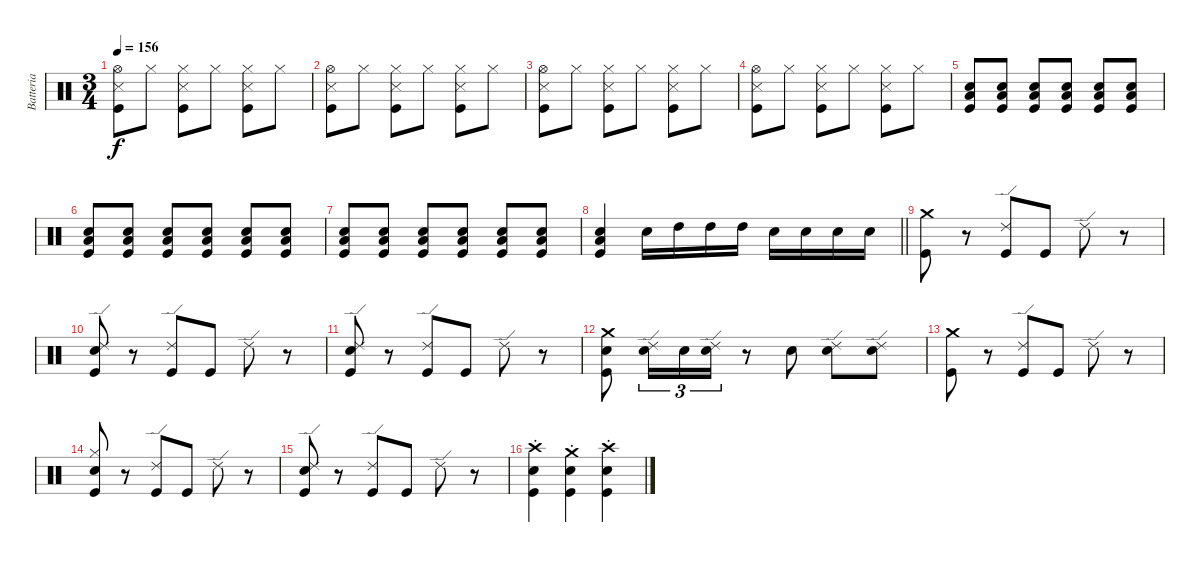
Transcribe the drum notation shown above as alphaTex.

\track ("Batteria" "Batteria") {instrument percussion}
\staff {score}
\articulation defaults
\ts (3 4)
\tempo 156
\clef neutral
\ks c
("Hi-Hat (open)" "Kick (hit)" "Snare (side stick) 3").8{dy f} "Hi-Hat (closed)".8 ("Hi-Hat (closed)" "Kick (hit)" "Snare (side stick) 3").8 "Hi-Hat (closed)".8 ("Hi-Hat (closed)" "Kick (hit)" "Snare (side stick) 3").8 "Hi-Hat (closed)".8 |
("Hi-Hat (open)" "Kick (hit)" "Snare (side stick) 3").8 "Hi-Hat (closed)".8 ("Hi-Hat (closed)" "Kick (hit)" "Snare (side stick) 3").8 "Hi-Hat (closed)".8 ("Hi-Hat (closed)" "Kick (hit)" "Snare (side stick) 3").8 "Hi-Hat (closed)".8 |
("Hi-Hat (open)" "Kick (hit)" "Snare (side stick) 3").8 "Hi-Hat (closed)".8 ("Hi-Hat (closed)" "Kick (hit)" "Snare (side stick) 3").8 "Hi-Hat (closed)".8 ("Hi-Hat (closed)" "Kick (hit)" "Snare (side stick) 3").8 "Hi-Hat (closed)".8 |
("Hi-Hat (open)" "Kick (hit)" "Snare (side stick) 3").8 "Hi-Hat (closed)".8 ("Hi-Hat (closed)" "Kick (hit)" "Snare (side stick) 3").8 "Hi-Hat (closed)".8 ("Hi-Hat (closed)" "Kick (hit)" "Snare (side stick) 3").8 "Hi-Hat (closed)".8 |
("Electric Snare (hit)" "Low Tom (hit)" "Kick (hit)").8 ("Electric Snare (hit)" "Low Tom (hit)" "Kick (hit)").8 ("Electric Snare (hit)" "Low Tom (hit)" "Kick (hit)").8 ("Electric Snare (hit)" "Low Tom (hit)" "Kick (hit)").8 ("Electric Snare (hit)" "Low Tom (hit)" "Kick (hit)").8 ("Electric Snare (hit)" "Low Tom (hit)" "Kick (hit)").8 |
("Electric Snare (hit)" "Low Tom (hit)" "Kick (hit)").8 ("Electric Snare (hit)" "Low Tom (hit)" "Kick (hit)").8 ("Electric Snare (hit)" "Low Tom (hit)" "Kick (hit)").8 ("Electric Snare (hit)" "Low Tom (hit)" "Kick (hit)").8 ("Electric Snare (hit)" "Low Tom (hit)" "Kick (hit)").8 ("Electric Snare (hit)" "Low Tom (hit)" "Kick (hit)").8 |
("Electric Snare (hit)" "Low Tom (hit)" "Kick (hit)").8 ("Electric Snare (hit)" "Low Tom (hit)" "Kick (hit)").8 ("Electric Snare (hit)" "Low Tom (hit)" "Kick (hit)").8 ("Electric Snare (hit)" "Low Tom (hit)" "Kick (hit)").8 ("Electric Snare (hit)" "Low Tom (hit)" "Kick (hit)").8 ("Electric Snare (hit)" "Low Tom (hit)" "Kick (hit)").8 |
\barLineRight lightlight
("Electric Snare (hit)" "Low Tom (hit)" "Kick (hit)").4 "Electric Snare (hit)".16 "High Tom (hit)".16 "High Tom (hit)".16 "High Tom (hit)".16 "Electric Snare (hit)".16 "Electric Snare (hit)".16 "Electric Snare (hit)".16 "Electric Snare (hit)".16 |
\section ("" "")
("Crash medium (hit)" "Kick (hit)").8 r.8 ("Ride (edge) 2" "Kick (hit)").8 "Kick (hit)".8 "Ride (edge) 2".8 r.8 |
("Ride (edge) 2" "Electric Snare (hit)" "Kick (hit)").8 r.8 ("Ride (edge) 2" "Kick (hit)").8 "Kick (hit)".8 "Ride (edge) 2".8 r.8 |
("Ride (edge) 2" "Electric Snare (hit)" "Kick (hit)").8 r.8 ("Ride (edge) 2" "Kick (hit)").8 "Kick (hit)".8 "Ride (edge) 2".8 r.8 |
("Crash medium (hit)" "Electric Snare (hit)" "Kick (hit)").8 ("Ride (edge) 2" "Electric Snare (hit)").16{tu (3 2)} "Electric Snare (hit)".16{tu (3 2)} ("Ride (edge) 2" "Electric Snare (hit)").16{tu (3 2)} r.8 "Electric Snare (hit)".8 ("Ride (edge) 2" "Electric Snare (hit)").8 ("Ride (edge) 2" "Electric Snare (hit)").8 |
("Crash medium (hit)" "Kick (hit)").8 r.8 ("Ride (edge) 2" "Kick (hit)").8 "Kick (hit)".8 "Ride (edge) 2".8 r.8 |
("Hi-Hat (closed)" "Electric Snare (hit)" "Kick (hit)").8 r.8 ("Ride (edge) 2" "Kick (hit)").8 "Kick (hit)".8 "Ride (edge) 2".8 r.8 |
("Ride (edge) 2" "Electric Snare (hit)" "Kick (hit)").8 r.8 ("Ride (edge) 2" "Kick (hit)").8 "Kick (hit)".8 "Ride (edge) 2".8 r.8 |
("Crash high (hit)"{st} "Electric Snare (hit)"{st} "Kick (hit)"{st}).4 ("Crash medium (hit)"{st} "Electric Snare (hit)"{st} "Kick (hit)"{st}).4 ("Crash high (hit)"{st} "Electric Snare (hit)"{st} "Kick (hit)"{st}).4
